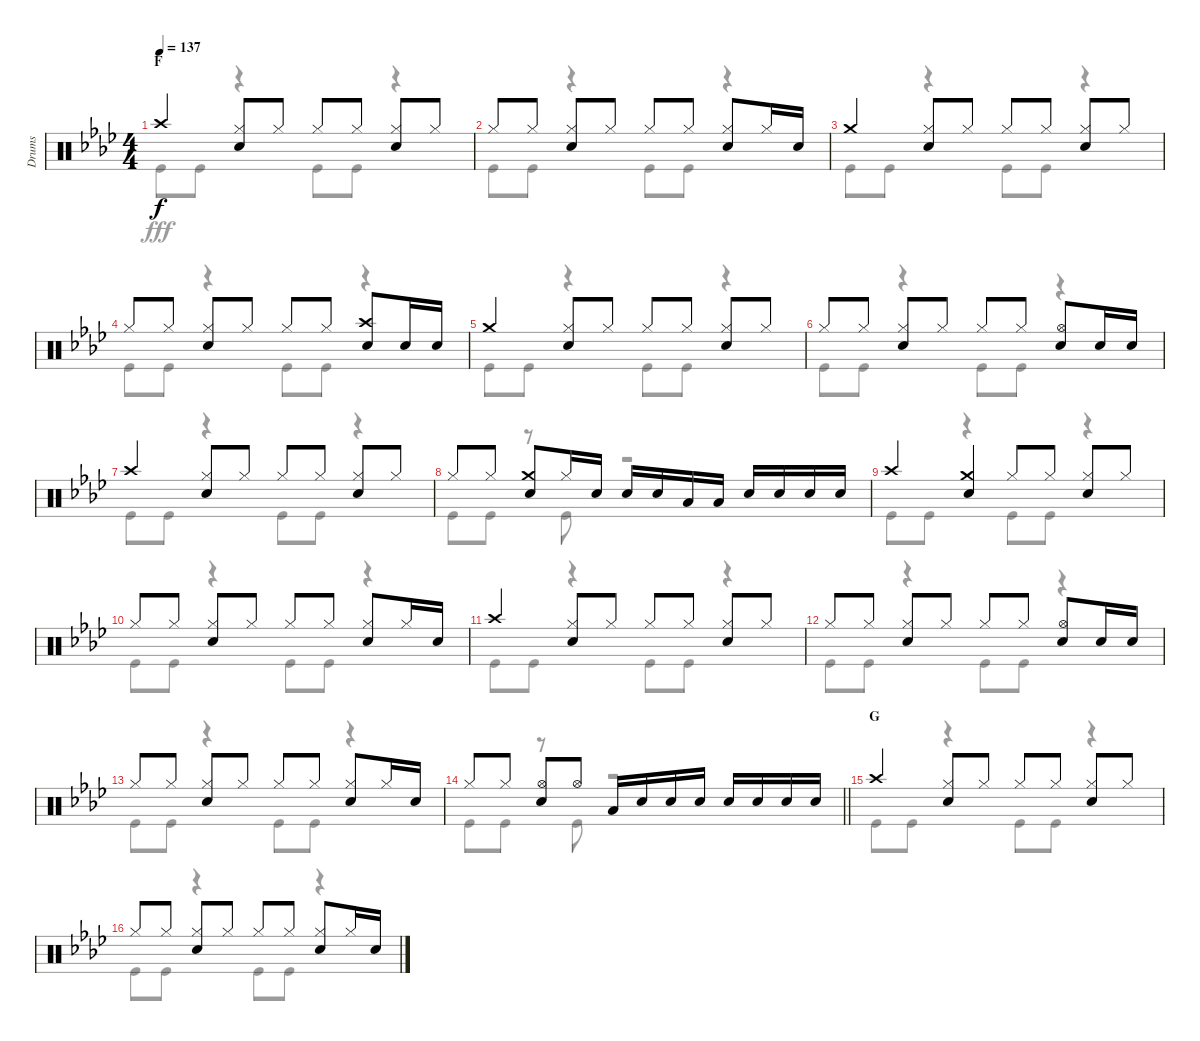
\track ("Drums" "Drums") {instrument percussion}
\staff {score}
\articulation defaults
\voice
\ts (4 4)
\section ("" "F")
\tempo 137
\clef neutral
\ks ab "Crash high (hit)".4{dy f}
("Hi-Hat (closed)" "Snare (hit) 2").8 "Hi-Hat (closed)".8 "Hi-Hat (closed)".8 "Hi-Hat (closed)".8 ("Hi-Hat (closed)" "Snare (hit) 2").8 "Hi-Hat (closed)".8 |
"Hi-Hat (closed)".8 "Hi-Hat (closed)".8 ("Hi-Hat (closed)" "Snare (hit) 2").8 "Hi-Hat (closed)".8 "Hi-Hat (closed)".8 "Hi-Hat (closed)".8 ("Hi-Hat (closed)" "Snare (hit) 2").8 "Hi-Hat (closed)".16 "Snare (hit) 2".16 |
"Crash medium (hit)".4 ("Hi-Hat (closed)" "Snare (hit) 2").8 "Hi-Hat (closed)".8 "Hi-Hat (closed)".8 "Hi-Hat (closed)".8 ("Hi-Hat (closed)" "Snare (hit) 2").8 "Hi-Hat (closed)".8 |
"Hi-Hat (closed)".8 "Hi-Hat (closed)".8 ("Hi-Hat (closed)" "Snare (hit) 2").8 "Hi-Hat (closed)".8 "Hi-Hat (closed)".8 "Hi-Hat (closed)".8 ("Crash high (hit)" "Snare (hit) 2").8 "Snare (hit) 2".16 "Snare (hit) 2".16 |
"Crash medium (hit)".4 ("Hi-Hat (closed)" "Snare (hit) 2").8 "Hi-Hat (closed)".8 "Hi-Hat (closed)".8 "Hi-Hat (closed)".8 ("Hi-Hat (closed)" "Snare (hit) 2").8 "Hi-Hat (closed)".8 |
"Hi-Hat (closed)".8 "Hi-Hat (closed)".8 ("Hi-Hat (closed)" "Snare (hit) 2").8 "Hi-Hat (closed)".8 "Hi-Hat (closed)".8 "Hi-Hat (closed)".8 ("Hi-Hat (open)" "Snare (hit) 2").8 "Snare (hit) 2".16 "Snare (hit) 2".16 |
"Crash high (hit)".4 ("Hi-Hat (closed)" "Snare (hit) 2").8 "Hi-Hat (closed)".8 "Hi-Hat (closed)".8 "Hi-Hat (closed)".8 ("Hi-Hat (closed)" "Snare (hit) 2").8 "Hi-Hat (closed)".8 |
"Hi-Hat (closed)".8 "Hi-Hat (closed)".8 ("Crash medium (hit)" "Snare (hit) 2").8 "Hi-Hat (closed)".16 "Snare (hit) 2".16 "Snare (hit) 2".16 "Snare (hit) 2".16 "Low Tom (hit)".16 "Low Tom (hit)".16 "Snare (hit) 2".16 "Snare (hit) 2".16 "Snare (hit) 2".16 "Snare (hit) 2".16 |
"Crash high (hit)".4 ("Crash medium (hit)" "Snare (hit) 2").4 "Hi-Hat (closed)".8 "Hi-Hat (closed)".8 ("Hi-Hat (closed)" "Snare (hit) 2").8 "Hi-Hat (closed)".8 |
"Hi-Hat (closed)".8 "Hi-Hat (closed)".8 ("Hi-Hat (closed)" "Snare (hit) 2").8 "Hi-Hat (closed)".8 "Hi-Hat (closed)".8 "Hi-Hat (closed)".8 ("Hi-Hat (closed)" "Snare (hit) 2").8 "Hi-Hat (closed)".16 "Snare (hit) 2".16 |
"Crash high (hit)".4 ("Hi-Hat (closed)" "Snare (hit) 2").8 "Hi-Hat (closed)".8 "Hi-Hat (closed)".8 "Hi-Hat (closed)".8 ("Hi-Hat (closed)" "Snare (hit) 2").8 "Hi-Hat (closed)".8 |
"Hi-Hat (closed)".8 "Hi-Hat (closed)".8 ("Hi-Hat (closed)" "Snare (hit) 2").8 "Hi-Hat (closed)".8 "Hi-Hat (closed)".8 "Hi-Hat (closed)".8 ("Hi-Hat (open)" "Snare (hit) 2").8 "Snare (hit) 2".16 "Snare (hit) 2".16 |
"Hi-Hat (closed)".8 "Hi-Hat (closed)".8 ("Hi-Hat (closed)" "Snare (hit) 2").8 "Hi-Hat (closed)".8 "Hi-Hat (closed)".8 "Hi-Hat (closed)".8 ("Hi-Hat (closed)" "Snare (hit) 2").8 "Hi-Hat (closed)".16 "Snare (hit) 2".16 |
\barLineRight lightlight "Hi-Hat (closed)".8 "Hi-Hat (closed)".8
("Hi-Hat (open)" "Snare (hit) 2").8 "Hi-Hat (open)".8 "Low Tom (hit)".16 "Snare (hit) 2".16 "Snare (hit) 2".16 "Snare (hit) 2".16 "Snare (hit) 2".16 "Snare (hit) 2".16 "Snare (hit) 2".16 "Snare (hit) 2".16 |
\section ("" "G")
"Crash high (hit)".4 ("Hi-Hat (closed)" "Snare (hit) 2").8 "Hi-Hat (closed)".8 "Hi-Hat (closed)".8 "Hi-Hat (closed)".8 ("Hi-Hat (closed)" "Snare (hit) 2").8 "Hi-Hat (closed)".8 |
"Hi-Hat (closed)".8 "Hi-Hat (closed)".8 ("Hi-Hat (closed)" "Snare (hit) 2").8 "Hi-Hat (closed)".8 "Hi-Hat (closed)".8 "Hi-Hat (closed)".8 ("Hi-Hat (closed)" "Snare (hit) 2").8 "Hi-Hat (closed)".16 "Snare (hit) 2".16
\voice
\clef neutral
\ottava regular
\simile none
\ks ab "Kick (hit)".8{dy fff} "Kick (hit)".8
r.4 "Kick (hit)".8 "Kick (hit)".8 r.4 |
"Kick (hit)".8 "Kick (hit)".8 r.4 "Kick (hit)".8 "Kick (hit)".8 r.4 |
"Kick (hit)".8 "Kick (hit)".8 r.4 "Kick (hit)".8 "Kick (hit)".8 r.4 |
"Kick (hit)".8 "Kick (hit)".8 r.4 "Kick (hit)".8 "Kick (hit)".8 r.4 |
"Kick (hit)".8 "Kick (hit)".8 r.4 "Kick (hit)".8 "Kick (hit)".8 r.4 |
"Kick (hit)".8 "Kick (hit)".8 r.4 "Kick (hit)".8 "Kick (hit)".8 r.4 |
"Kick (hit)".8 "Kick (hit)".8 r.4 "Kick (hit)".8 "Kick (hit)".8 r.4 |
"Kick (hit)".8 "Kick (hit)".8 r.8 "Kick (hit)".8 r.2 |
"Kick (hit)".8 "Kick (hit)".8 r.4 "Kick (hit)".8 "Kick (hit)".8 r.4 |
"Kick (hit)".8 "Kick (hit)".8 r.4 "Kick (hit)".8 "Kick (hit)".8 r.4 |
"Kick (hit)".8 "Kick (hit)".8 r.4 "Kick (hit)".8 "Kick (hit)".8 r.4 |
"Kick (hit)".8 "Kick (hit)".8 r.4 "Kick (hit)".8 "Kick (hit)".8 r.4 |
"Kick (hit)".8 "Kick (hit)".8 r.4 "Kick (hit)".8 "Kick (hit)".8 r.4 |
\barLineRight lightlight "Kick (hit)".8 "Kick (hit)".8
r.8 "Kick (hit)".8 r.2 |
"Kick (hit)".8 "Kick (hit)".8 r.4 "Kick (hit)".8 "Kick (hit)".8 r.4 |
"Kick (hit)".8 "Kick (hit)".8 r.4 "Kick (hit)".8 "Kick (hit)".8 r.4
